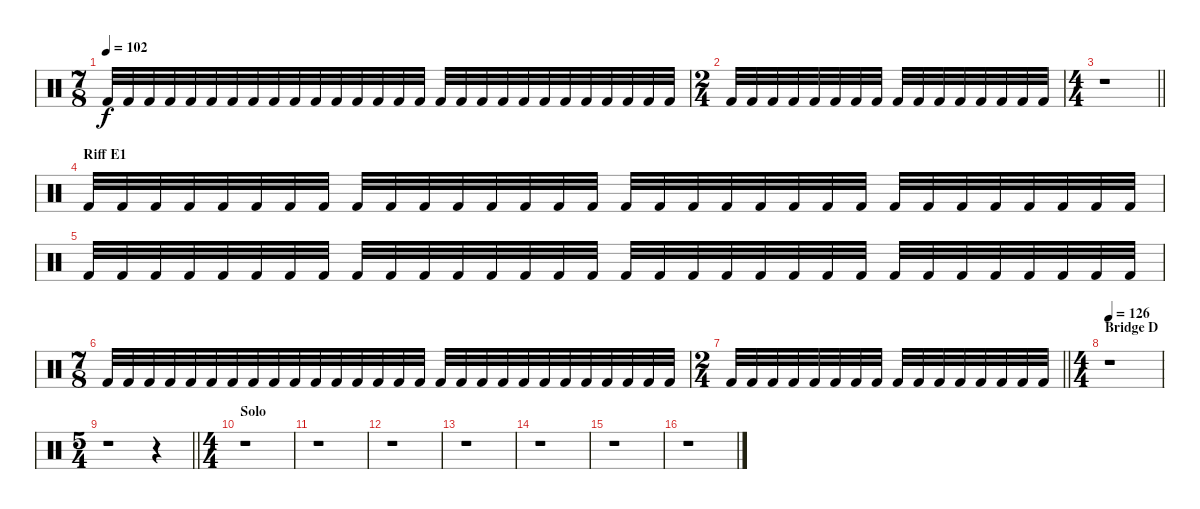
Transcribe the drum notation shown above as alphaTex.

\track "" {instrument percussion}
\staff {score}
\articulation defaults
\ts (7 8)
\tempo 102
\clef neutral
\ks c "Kick (hit) 2".32{dy f} "Kick (hit) 2".32 "Kick (hit) 2".32 "Kick (hit) 2".32 "Kick (hit) 2".32 "Kick (hit) 2".32 "Kick (hit) 2".32 "Kick (hit) 2".32 "Kick (hit) 2".32 "Kick (hit) 2".32 "Kick (hit) 2".32 "Kick (hit) 2".32 "Kick (hit) 2".32 "Kick (hit) 2".32 "Kick (hit) 2".32 "Kick (hit) 2".32 "Kick (hit) 2".32 "Kick (hit) 2".32 "Kick (hit) 2".32 "Kick (hit) 2".32 "Kick (hit) 2".32 "Kick (hit) 2".32 "Kick (hit) 2".32 "Kick (hit) 2".32 "Kick (hit) 2".32 "Kick (hit) 2".32 "Kick (hit) 2".32 "Kick (hit) 2".32
|
\ts (2 4)
"Kick (hit) 2".32 "Kick (hit) 2".32 "Kick (hit) 2".32 "Kick (hit) 2".32 "Kick (hit) 2".32 "Kick (hit) 2".32 "Kick (hit) 2".32 "Kick (hit) 2".32 "Kick (hit) 2".32 "Kick (hit) 2".32 "Kick (hit) 2".32 "Kick (hit) 2".32 "Kick (hit) 2".32 "Kick (hit) 2".32 "Kick (hit) 2".32 "Kick (hit) 2".32 |
\ts (4 4)
\barLineRight lightlight
r.1 |
\section ("" "Riff E1")
"Kick (hit) 2".32 "Kick (hit) 2".32 "Kick (hit) 2".32 "Kick (hit) 2".32 "Kick (hit) 2".32 "Kick (hit) 2".32 "Kick (hit) 2".32 "Kick (hit) 2".32 "Kick (hit) 2".32 "Kick (hit) 2".32 "Kick (hit) 2".32 "Kick (hit) 2".32 "Kick (hit) 2".32 "Kick (hit) 2".32 "Kick (hit) 2".32 "Kick (hit) 2".32 "Kick (hit) 2".32 "Kick (hit) 2".32 "Kick (hit) 2".32 "Kick (hit) 2".32 "Kick (hit) 2".32 "Kick (hit) 2".32 "Kick (hit) 2".32 "Kick (hit) 2".32 "Kick (hit) 2".32 "Kick (hit) 2".32 "Kick (hit) 2".32 "Kick (hit) 2".32 "Kick (hit) 2".32 "Kick (hit) 2".32 "Kick (hit) 2".32 "Kick (hit) 2".32 |
"Kick (hit) 2".32 "Kick (hit) 2".32 "Kick (hit) 2".32 "Kick (hit) 2".32 "Kick (hit) 2".32 "Kick (hit) 2".32 "Kick (hit) 2".32 "Kick (hit) 2".32 "Kick (hit) 2".32 "Kick (hit) 2".32 "Kick (hit) 2".32 "Kick (hit) 2".32 "Kick (hit) 2".32 "Kick (hit) 2".32 "Kick (hit) 2".32 "Kick (hit) 2".32 "Kick (hit) 2".32 "Kick (hit) 2".32 "Kick (hit) 2".32 "Kick (hit) 2".32 "Kick (hit) 2".32 "Kick (hit) 2".32 "Kick (hit) 2".32 "Kick (hit) 2".32 "Kick (hit) 2".32 "Kick (hit) 2".32 "Kick (hit) 2".32 "Kick (hit) 2".32 "Kick (hit) 2".32 "Kick (hit) 2".32 "Kick (hit) 2".32 "Kick (hit) 2".32 |
\ts (7 8)
"Kick (hit) 2".32 "Kick (hit) 2".32 "Kick (hit) 2".32 "Kick (hit) 2".32 "Kick (hit) 2".32 "Kick (hit) 2".32 "Kick (hit) 2".32 "Kick (hit) 2".32 "Kick (hit) 2".32 "Kick (hit) 2".32 "Kick (hit) 2".32 "Kick (hit) 2".32 "Kick (hit) 2".32 "Kick (hit) 2".32 "Kick (hit) 2".32 "Kick (hit) 2".32 "Kick (hit) 2".32 "Kick (hit) 2".32 "Kick (hit) 2".32 "Kick (hit) 2".32 "Kick (hit) 2".32 "Kick (hit) 2".32 "Kick (hit) 2".32 "Kick (hit) 2".32 "Kick (hit) 2".32 "Kick (hit) 2".32 "Kick (hit) 2".32 "Kick (hit) 2".32 |
\ts (2 4)
\barLineRight lightlight "Kick (hit) 2".32 "Kick (hit) 2".32 "Kick (hit) 2".32 "Kick (hit) 2".32 "Kick (hit) 2".32 "Kick (hit) 2".32 "Kick (hit) 2".32 "Kick (hit) 2".32 "Kick (hit) 2".32 "Kick (hit) 2".32 "Kick (hit) 2".32 "Kick (hit) 2".32 "Kick (hit) 2".32 "Kick (hit) 2".32 "Kick (hit) 2".32 "Kick (hit) 2".32
|
\ts (4 4)
\section ("" "Bridge D")
\tempo 126
r.1 |
\ts (5 4)
\barLineRight lightlight
r.1 r.4 |
\ts (4 4)
\section ("" "Solo")
r.1 |
r.1 |
r.1 |
r.1 |
r.1 |
r.1 |
r.1
